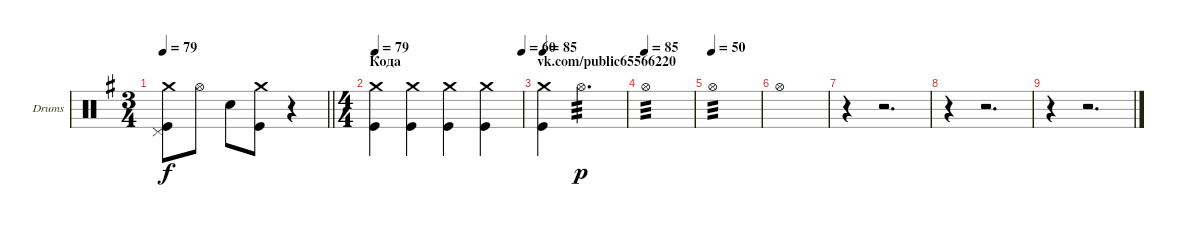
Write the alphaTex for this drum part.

\bracketExtendMode groupsimilarinstruments
\firstSystemTrackNameOrientation horizontal
\otherSystemsTrackNameOrientation horizontal
\track ("Александр Манякин" "Drums") {instrument percussion}
\staff {score}
\articulation defaults
\ts (3 4)
\beaming (8 2 2 2)
\tempo 79
\clef neutral
\barLineRight lightlight
\ks eminor
("Kick (hit)" "Pedal Hi-Hat (hit)" "Crash medium (hit)").8{dy f} "Hi-Hat (open)".8 "Snare (hit) 2".8 ("Kick (hit)" "Crash medium (hit)").8 r.4 |
\ts (4 4)
\beaming (8 2 2 2 2)
\section ("" "Кода")
\tempo 79
\tempo (60 1)
("Kick (hit)" "Crash medium (hit)").4 ("Kick (hit)" "Crash medium (hit)").4 ("Kick (hit)" "Crash medium (hit)").4 ("Kick (hit)" "Crash medium (hit)").4 |
\section ("" "vk.com/public65566220")
\tempo 85
("Kick (hit)" "Crash medium (hit)").4 "Hi-Hat (open)".2{d tp 3 dy p} |
\tempo (85)
"Hi-Hat (open)".1{tp 3} |
\tempo (50)
"Hi-Hat (open)".1{tp 3} |
"Hi-Hat (open)".1 |
r.4 r.2{d} |
r.4 r.2{d} |
r.4 r.2{d}
